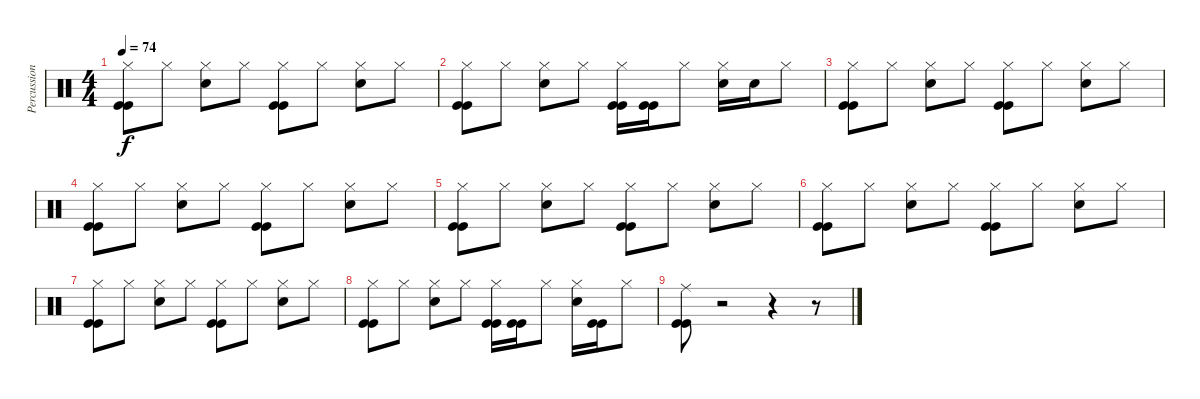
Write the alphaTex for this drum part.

\track ("Percussions" "Percussion") {instrument percussion}
\staff {score}
\articulation defaults
\ts (4 4)
\tempo 74
\clef neutral
\ks c
("Hi-Hat (closed)" "Kick (hit)" "Kick (hit)").8{dy f} "Hi-Hat (closed)".8 ("Hi-Hat (closed)" "Snare (hit) 2").8 "Hi-Hat (closed)".8 ("Hi-Hat (closed)" "Kick (hit)" "Kick (hit)").8 "Hi-Hat (closed)".8 ("Hi-Hat (closed)" "Snare (hit) 2").8 "Hi-Hat (closed)".8 |
("Hi-Hat (closed)" "Kick (hit)" "Kick (hit)").8 "Hi-Hat (closed)".8 ("Hi-Hat (closed)" "Snare (hit) 2").8 "Hi-Hat (closed)".8 ("Hi-Hat (closed)" "Kick (hit)" "Kick (hit)").16 ("Kick (hit)" "Kick (hit)").16 "Hi-Hat (closed)".8 ("Hi-Hat (closed)" "Snare (hit) 2").16 "Snare (hit) 2".16 "Hi-Hat (closed)".8 |
("Hi-Hat (closed)" "Kick (hit)" "Kick (hit)").8 "Hi-Hat (closed)".8 ("Hi-Hat (closed)" "Snare (hit) 2").8 "Hi-Hat (closed)".8 ("Hi-Hat (closed)" "Kick (hit)" "Kick (hit)").8 "Hi-Hat (closed)".8 ("Hi-Hat (closed)" "Snare (hit) 2").8 "Hi-Hat (closed)".8 |
("Hi-Hat (closed)" "Kick (hit)" "Kick (hit)").8 "Hi-Hat (closed)".8 ("Hi-Hat (closed)" "Snare (hit) 2").8 "Hi-Hat (closed)".8 ("Hi-Hat (closed)" "Kick (hit)" "Kick (hit)").8 "Hi-Hat (closed)".8 ("Hi-Hat (closed)" "Snare (hit) 2").8 "Hi-Hat (closed)".8 |
("Hi-Hat (closed)" "Kick (hit)" "Kick (hit)").8 "Hi-Hat (closed)".8 ("Hi-Hat (closed)" "Snare (hit) 2").8 "Hi-Hat (closed)".8 ("Hi-Hat (closed)" "Kick (hit)" "Kick (hit)").8 "Hi-Hat (closed)".8 ("Hi-Hat (closed)" "Snare (hit) 2").8 "Hi-Hat (closed)".8 |
("Hi-Hat (closed)" "Kick (hit)" "Kick (hit)").8 "Hi-Hat (closed)".8 ("Hi-Hat (closed)" "Snare (hit) 2").8 "Hi-Hat (closed)".8 ("Hi-Hat (closed)" "Kick (hit)" "Kick (hit)").8 "Hi-Hat (closed)".8 ("Hi-Hat (closed)" "Snare (hit) 2").8 "Hi-Hat (closed)".8 |
("Hi-Hat (closed)" "Kick (hit)" "Kick (hit)").8 "Hi-Hat (closed)".8 ("Hi-Hat (closed)" "Snare (hit) 2").8 "Hi-Hat (closed)".8 ("Hi-Hat (closed)" "Kick (hit)" "Kick (hit)").8 "Hi-Hat (closed)".8 ("Hi-Hat (closed)" "Snare (hit) 2").8 "Hi-Hat (closed)".8 |
("Hi-Hat (closed)" "Kick (hit)" "Kick (hit)").8 "Hi-Hat (closed)".8 ("Hi-Hat (closed)" "Snare (hit) 2").8 "Hi-Hat (closed)".8 ("Hi-Hat (closed)" "Kick (hit)" "Kick (hit)").16 ("Kick (hit)" "Kick (hit)").16 "Hi-Hat (closed)".8 ("Hi-Hat (closed)" "Snare (hit) 2").16 ("Kick (hit)" "Kick (hit)").16 "Hi-Hat (closed)".8 |
("Ride (middle)" "Kick (hit)" "Kick (hit)").8 r.2 r.4 r.8
